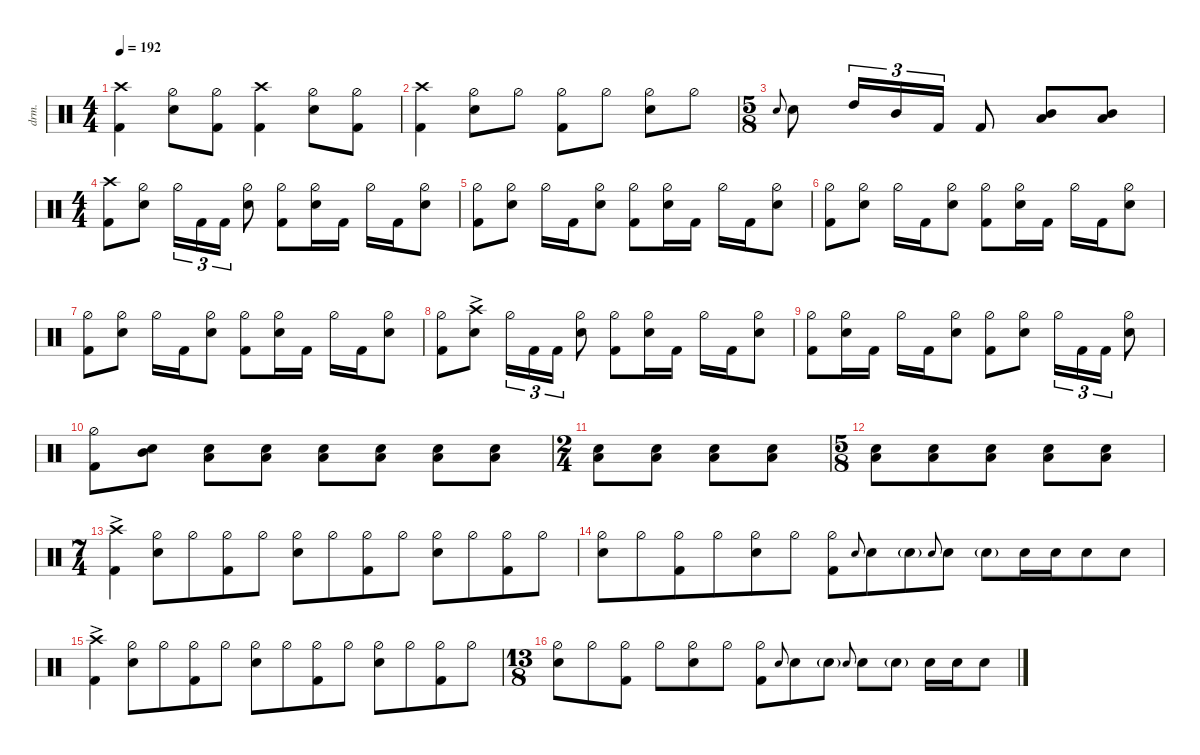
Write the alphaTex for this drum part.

\defaultSystemsLayout 4
\hideDynamics
\bracketExtendMode nobrackets
\otherSystemsTrackNameOrientation horizontal
\track ("Drumkit" "drm.") {defaultSystemsLayout 4 multiBarRest instrument percussion}
\staff
\articulation defaults
\ts (4 4)
\tempo 192
\clef neutral
\ks c
("Kick (hit) 2" "Crash high (hit)").4{dy f beam Down} ("Hi-Hat (half)" "Snare (hit) 2").8{beam Down} ("Kick (hit) 2" "Hi-Hat (half)").8{beam Down} ("Kick (hit) 2" "Crash high (hit)").4{beam Down} ("Hi-Hat (half)" "Snare (hit) 2").8{beam Down} ("Kick (hit) 2" "Hi-Hat (half)").8{beam Down} |
("Kick (hit) 2" "Crash high (hit)").4{beam Down} ("Hi-Hat (half)" "Snare (hit) 2").8{beam Down} "Hi-Hat (half)".8{beam Down} ("Hi-Hat (half)" "Kick (hit) 2").8{beam Down} "Hi-Hat (half)".8{beam Down} ("Hi-Hat (half)" "Snare (hit) 2").8{beam Down} "Hi-Hat (half)".8{beam Down} |
\ts (5 8)
\beaming (8 3 2)
"Snare (hit) 2".8{gr onbeat beam Up} "Snare (hit) 2".8{beam Down} "High Tom (hit)".16{tu (3 2) dy fff beam Up} "Mid Tom (hit)".16{tu (3 2) beam Up} "Kick (hit) 2".16{tu (3 2) dy f beam Up} "Kick (hit) 2".8{beam Up} ("Mid Tom (hit)" "Low Tom (hit)").8{dy fff beam Up} ("Mid Tom (hit)" "Low Tom (hit)").8{beam Up} |
\ts (4 4)
\beaming (8 2 2 2 2)
("Crash high (hit)" "Kick (hit) 2").8{dy f beam Down} ("Hi-Hat (half)" "Snare (hit) 2").8{beam Down} "Hi-Hat (half)".16{tu (3 2) beam Down} "Kick (hit) 2".16{tu (3 2) beam Down} "Kick (hit) 2".16{tu (3 2) beam Down} ("Hi-Hat (half)" "Snare (hit) 2").8{beam Down} ("Hi-Hat (half)" "Kick (hit) 2").8{beam Down} ("Hi-Hat (half)" "Snare (hit) 2").16{beam Down} "Kick (hit) 2".16{beam Down} "Hi-Hat (half)".16{beam Down} "Kick (hit) 2".16{beam Down} ("Hi-Hat (half)" "Snare (hit) 2").8{beam Down} |
("Kick (hit) 2" "Hi-Hat (half)").8{beam Down} ("Hi-Hat (half)" "Snare (hit) 2").8{beam Down} "Hi-Hat (half)".16{beam Down} "Kick (hit) 2".16{beam Down} ("Hi-Hat (half)" "Snare (hit) 2").8{beam Down} ("Hi-Hat (half)" "Kick (hit) 2").8{beam Down} ("Hi-Hat (half)" "Snare (hit) 2").16{beam Down} "Kick (hit) 2".16{beam Down} "Hi-Hat (half)".16{beam Down} "Kick (hit) 2".16{beam Down} ("Hi-Hat (half)" "Snare (hit) 2").8{beam Down} |
("Kick (hit) 2" "Hi-Hat (half)").8{beam Down} ("Hi-Hat (half)" "Snare (hit) 2").8{beam Down} "Hi-Hat (half)".16{beam Down} "Kick (hit) 2".16{beam Down} ("Hi-Hat (half)" "Snare (hit) 2").8{beam Down} ("Hi-Hat (half)" "Kick (hit) 2").8{beam Down} ("Hi-Hat (half)" "Snare (hit) 2").16{beam Down} "Kick (hit) 2".16{beam Down} "Hi-Hat (half)".16{beam Down} "Kick (hit) 2".16{beam Down} ("Hi-Hat (half)" "Snare (hit) 2").8{beam Down} |
("Kick (hit) 2" "Hi-Hat (half)").8{beam Down} ("Hi-Hat (half)" "Snare (hit) 2").8{beam Down} "Hi-Hat (half)".16{beam Down} "Kick (hit) 2".16{beam Down} ("Hi-Hat (half)" "Snare (hit) 2").8{beam Down} ("Hi-Hat (half)" "Kick (hit) 2").8{beam Down} ("Hi-Hat (half)" "Snare (hit) 2").16{beam Down} "Kick (hit) 2".16{beam Down} "Hi-Hat (half)".16{beam Down} "Kick (hit) 2".16{beam Down} ("Hi-Hat (half)" "Snare (hit) 2").8{beam Down} |
("Kick (hit) 2" "Hi-Hat (half)").8{beam Down} ("Snare (hit) 2" "Crash high (hit)"{ac}).8{beam Down} "Hi-Hat (half)".16{tu (3 2) beam Down} "Kick (hit) 2".16{tu (3 2) beam Down} "Kick (hit) 2".16{tu (3 2) beam Down} ("Hi-Hat (half)" "Snare (hit) 2").8{beam Down} ("Hi-Hat (half)" "Kick (hit) 2").8{beam Down} ("Hi-Hat (half)" "Snare (hit) 2").16{beam Down} "Kick (hit) 2".16{beam Down} "Hi-Hat (half)".16{beam Down} "Kick (hit) 2".16{beam Down} ("Hi-Hat (half)" "Snare (hit) 2").8{beam Down} |
("Hi-Hat (half)" "Kick (hit) 2").8{beam Down} ("Hi-Hat (half)" "Snare (hit) 2").16{beam Down} "Kick (hit) 2".16{beam Down} "Hi-Hat (half)".16{beam Down} "Kick (hit) 2".16{beam Down} ("Hi-Hat (half)" "Snare (hit) 2").8{beam Down} ("Kick (hit) 2" "Hi-Hat (half)").8{beam Down} ("Snare (hit) 2" "Hi-Hat (half)").8{beam Down} "Hi-Hat (half)".16{tu (3 2) beam Down} "Kick (hit) 2".16{tu (3 2) beam Down} "Kick (hit) 2".16{tu (3 2) beam Down} ("Hi-Hat (half)" "Snare (hit) 2").8{beam Down} |
("Hi-Hat (half)" "Kick (hit) 2").8{beam Down} ("Snare (hit) 2" "Mid Tom (hit)").8{beam Down} ("Snare (hit) 2" "Low Tom (hit)").8{beam Down} ("Snare (hit) 2" "Low Tom (hit)").8{beam Down} ("Snare (hit) 2" "Low Tom (hit)").8{beam Down} ("Snare (hit) 2" "Low Tom (hit)").8{beam Down} ("Snare (hit) 2" "Low Tom (hit)").8{beam Down} ("Snare (hit) 2" "Low Tom (hit)").8{beam Down} |
\ts (2 4)
\beaming (8 2 2)
("Snare (hit) 2" "Low Tom (hit)").8{beam Down} ("Snare (hit) 2" "Low Tom (hit)").8{beam Down} ("Snare (hit) 2" "Low Tom (hit)").8{beam Down} ("Snare (hit) 2" "Low Tom (hit)").8{beam Down} |
\ts (5 8)
\beaming (8 3 2)
("Snare (hit) 2" "Low Tom (hit)").8{beam Down} ("Snare (hit) 2" "Low Tom (hit)").8{beam Down} ("Snare (hit) 2" "Low Tom (hit)").8{beam Down} ("Snare (hit) 2" "Low Tom (hit)").8{beam Down} ("Snare (hit) 2" "Low Tom (hit)").8{beam Down} |
\ts (7 4)
\beaming (8 6 4 4)
("Kick (hit) 2" "Crash high (hit)"{ac}).4{beam Down} ("Hi-Hat (half)" "Snare (hit) 2").8{beam Down} "Hi-Hat (half)".8{beam Down} ("Kick (hit) 2" "Hi-Hat (half)").8{beam Down} "Hi-Hat (half)".8{beam Down} ("Hi-Hat (half)" "Snare (hit) 2").8{beam Down} "Hi-Hat (half)".8{beam Down} ("Kick (hit) 2" "Hi-Hat (half)").8{beam Down} "Hi-Hat (half)".8{beam Down} ("Hi-Hat (half)" "Snare (hit) 2").8{beam Down} "Hi-Hat (half)".8{beam Down} ("Kick (hit) 2" "Hi-Hat (half)").8{beam Down} "Hi-Hat (half)".8{beam Down} |
("Hi-Hat (half)" "Snare (hit) 2").8{beam Down} "Hi-Hat (half)".8{beam Down} ("Kick (hit) 2" "Hi-Hat (half)").8{beam Down} "Hi-Hat (half)".8{beam Down} ("Hi-Hat (half)" "Snare (hit) 2").8{beam Down} "Hi-Hat (half)".8{beam Down} ("Kick (hit) 2" "Hi-Hat (half)").8{beam Down} "Snare (hit) 2".8{gr onbeat beam Up} "Snare (hit) 2".8{beam Down} "Snare (hit) 2"{g}.8{dy mf beam Down} "Snare (hit) 2".8{gr onbeat dy f beam Up} "Snare (hit) 2".8{beam Down} "Snare (hit) 2"{g}.8{dy mf beam Down} "Snare (hit) 2".16{dy f beam Down} "Snare (hit) 2".16{beam Down} "Snare (hit) 2".8{beam Down} "Snare (hit) 2".8{beam Down} |
("Kick (hit) 2" "Crash high (hit)"{ac}).4{beam Down} ("Hi-Hat (half)" "Snare (hit) 2").8{beam Down} "Hi-Hat (half)".8{beam Down} ("Kick (hit) 2" "Hi-Hat (half)").8{beam Down} "Hi-Hat (half)".8{beam Down} ("Hi-Hat (half)" "Snare (hit) 2").8{beam Down} "Hi-Hat (half)".8{beam Down} ("Kick (hit) 2" "Hi-Hat (half)").8{beam Down} "Hi-Hat (half)".8{beam Down} ("Hi-Hat (half)" "Snare (hit) 2").8{beam Down} "Hi-Hat (half)".8{beam Down} ("Kick (hit) 2" "Hi-Hat (half)").8{beam Down} "Hi-Hat (half)".8{beam Down} |
\ts (13 8)
\beaming (8 3 3 3 2 2)
("Hi-Hat (half)" "Snare (hit) 2").8{beam Down} "Hi-Hat (half)".8{beam Down} ("Kick (hit) 2" "Hi-Hat (half)").8{beam Down} "Hi-Hat (half)".8{beam Down} ("Hi-Hat (half)" "Snare (hit) 2").8{beam Down} "Hi-Hat (half)".8{beam Down} ("Kick (hit) 2" "Hi-Hat (half)").8{beam Down} "Snare (hit) 2".8{gr onbeat beam Up} "Snare (hit) 2".8{beam Down} "Snare (hit) 2"{g}.8{dy mf beam Down} "Snare (hit) 2".8{gr onbeat dy f beam Up} "Snare (hit) 2".8{beam Down} "Snare (hit) 2"{g}.8{dy mf beam Down} "Snare (hit) 2".16{dy f beam Down} "Snare (hit) 2".16{beam Down} "Snare (hit) 2".8{beam Down}
